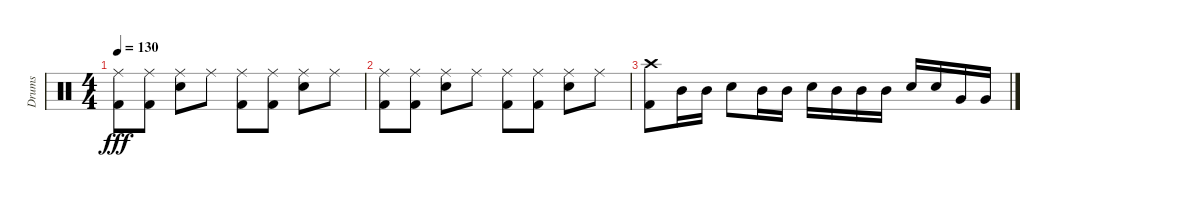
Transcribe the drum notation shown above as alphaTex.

\track ("Drums" "Drums") {instrument percussion}
\staff {score}
\articulation defaults
\ts (4 4)
\tempo 130
\clef neutral
\ks c
("Ride (middle)" "Kick (hit) 2").8{dy fff} ("Ride (middle)" "Kick (hit) 2").8 ("Ride (middle)" "Snare (hit) 2").8 "Ride (middle)".8 ("Ride (middle)" "Kick (hit) 2").8 ("Ride (middle)" "Kick (hit) 2").8 ("Ride (middle)" "Snare (hit) 2").8 "Ride (middle)".8 |
("Ride (middle)" "Kick (hit) 2").8 ("Ride (middle)" "Kick (hit) 2").8 ("Ride (middle)" "Snare (hit) 2").8 "Ride (middle)".8 ("Ride (middle)" "Kick (hit) 2").8 ("Ride (middle)" "Kick (hit) 2").8 ("Ride (middle)" "Snare (hit) 2").8 "Ride (middle)".8 |
("Crash high (hit)" "Kick (hit) 2").8 "Mid Tom (hit)".16 "Mid Tom (hit)".16 "Snare (hit) 2".8 "Mid Tom (hit)".16 "Mid Tom (hit)".16 "Snare (hit) 2".16 "Mid Tom (hit)".16 "Mid Tom (hit)".16 "Mid Tom (hit)".16 "Snare (hit) 2".16 "Snare (hit) 2".16 "Very Low Tom (hit)".16 "Very Low Tom (hit)".16
